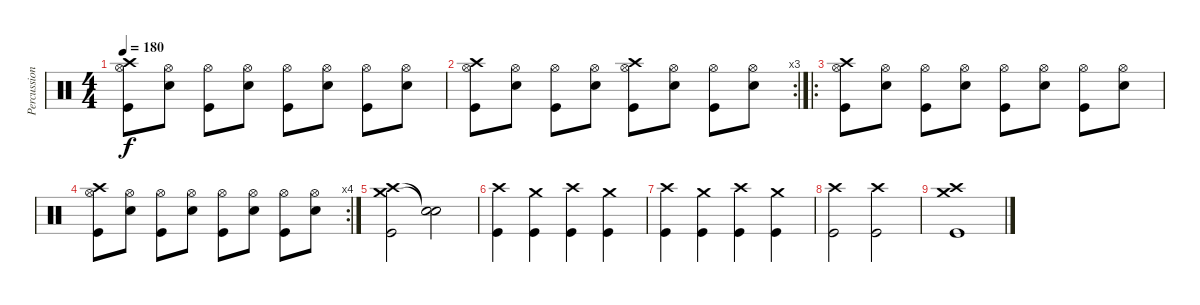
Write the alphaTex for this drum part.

\track ("Percussion" "Percussion") {instrument percussion}
\staff {score}
\articulation defaults
\ts (4 4)
\tempo 180
\clef neutral
\ks c
("Crash high (hit)" "Hi-Hat (open)" "Kick (hit)").8{dy f} ("Hi-Hat (open)" "Snare (hit) 2").8 ("Hi-Hat (open)" "Kick (hit)").8 ("Hi-Hat (open)" "Snare (hit) 2").8 ("Hi-Hat (open)" "Kick (hit)").8 ("Hi-Hat (open)" "Snare (hit) 2").8 ("Hi-Hat (open)" "Kick (hit)").8 ("Hi-Hat (open)" "Snare (hit) 2").8 |
\rc 3
("Crash high (hit)" "Hi-Hat (open)" "Kick (hit)").8 ("Hi-Hat (open)" "Snare (hit) 2").8 ("Hi-Hat (open)" "Kick (hit)").8 ("Hi-Hat (open)" "Snare (hit) 2").8 ("Crash high (hit)" "Hi-Hat (open)" "Kick (hit)").8 ("Hi-Hat (open)" "Snare (hit) 2").8 ("Hi-Hat (open)" "Kick (hit)").8 ("Hi-Hat (open)" "Snare (hit) 2").8 |
\ro
("Crash high (hit)" "Hi-Hat (open)" "Kick (hit)").8 ("Hi-Hat (open)" "Snare (hit) 2").8 ("Hi-Hat (open)" "Kick (hit)").8 ("Hi-Hat (open)" "Snare (hit) 2").8 ("Hi-Hat (open)" "Kick (hit)").8 ("Hi-Hat (open)" "Snare (hit) 2").8 ("Hi-Hat (open)" "Kick (hit)").8 ("Hi-Hat (open)" "Snare (hit) 2").8 |
\rc 4
("Crash high (hit)" "Hi-Hat (open)" "Kick (hit)").8 ("Hi-Hat (open)" "Snare (hit) 2").8 ("Hi-Hat (open)" "Kick (hit)").8 ("Hi-Hat (open)" "Snare (hit) 2").8 ("Hi-Hat (open)" "Kick (hit)").8 ("Hi-Hat (open)" "Snare (hit) 2").8 ("Hi-Hat (open)" "Kick (hit)").8 ("Hi-Hat (open)" "Snare (hit) 2").8 |
("Crash high (hit)" "Crash medium (hit)" "Kick (hit)").2 ("Snare (hit)"{t} "Snare (hit)"{t}).2 |
("Crash high (hit)" "Kick (hit)").4 ("Crash medium (hit)" "Kick (hit)").4 ("Crash high (hit)" "Kick (hit)").4 ("Crash medium (hit)" "Kick (hit)").4 |
("Crash high (hit)" "Kick (hit)").4 ("Crash medium (hit)" "Kick (hit)").4 ("Crash high (hit)" "Kick (hit)").4 ("Crash medium (hit)" "Kick (hit)").4 |
("Crash high (hit)" "Kick (hit)").2 ("Crash high (hit)" "Kick (hit)").2 |
("Crash medium (hit)" "Crash high (hit)" "Kick (hit)").1
